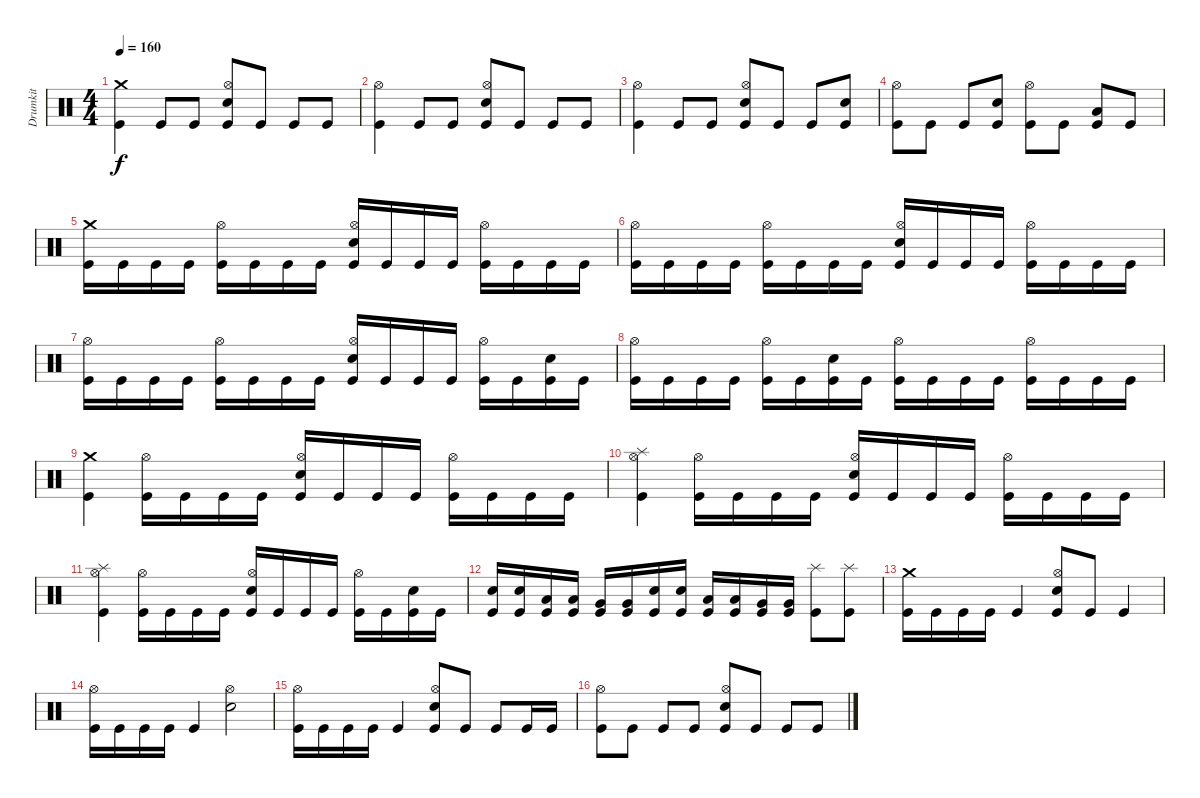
\track ("Drumkit" "Drumkit") {instrument percussion}
\staff {score}
\articulation defaults
\ts (4 4)
\tempo 160
\clef neutral
\ks c
("Crash medium (hit)" "Kick (hit)").4{dy f} "Kick (hit)".8 "Kick (hit)".8 ("Hi-Hat (open)" "Snare (hit) 2" "Kick (hit)").8 "Kick (hit)".8 "Kick (hit)".8 "Kick (hit)".8 |
("Hi-Hat (open)" "Kick (hit)").4 "Kick (hit)".8 "Kick (hit)".8 ("Hi-Hat (open)" "Snare (hit) 2" "Kick (hit)").8 "Kick (hit)".8 "Kick (hit)".8 "Kick (hit)".8 |
("Hi-Hat (open)" "Kick (hit)").4 "Kick (hit)".8 "Kick (hit)".8 ("Hi-Hat (open)" "Snare (hit) 2" "Kick (hit)").8 "Kick (hit)".8 "Kick (hit)".8 ("Snare (hit) 2" "Kick (hit)").8 |
("Hi-Hat (open)" "Kick (hit)").8 "Kick (hit)".8 "Kick (hit)".8 ("Snare (hit) 2" "Kick (hit)").8 ("Hi-Hat (open)" "Kick (hit)").8 "Kick (hit)".8 ("Low Tom (hit)" "Kick (hit)").8 "Kick (hit)".8 |
("Crash medium (hit)" "Kick (hit)").16 "Kick (hit)".16 "Kick (hit)".16 "Kick (hit)".16 ("Hi-Hat (open)" "Kick (hit)").16 "Kick (hit)".16 "Kick (hit)".16 "Kick (hit)".16 ("Hi-Hat (open)" "Snare (hit) 2" "Kick (hit)").16 "Kick (hit)".16 "Kick (hit)".16 "Kick (hit)".16 ("Hi-Hat (open)" "Kick (hit)").16 "Kick (hit)".16 "Kick (hit)".16 "Kick (hit)".16 |
("Hi-Hat (open)" "Kick (hit)").16 "Kick (hit)".16 "Kick (hit)".16 "Kick (hit)".16 ("Hi-Hat (open)" "Kick (hit)").16 "Kick (hit)".16 "Kick (hit)".16 "Kick (hit)".16 ("Hi-Hat (open)" "Snare (hit) 2" "Kick (hit)").16 "Kick (hit)".16 "Kick (hit)".16 "Kick (hit)".16 ("Hi-Hat (open)" "Kick (hit)").16 "Kick (hit)".16 "Kick (hit)".16 "Kick (hit)".16 |
("Hi-Hat (open)" "Kick (hit)").16 "Kick (hit)".16 "Kick (hit)".16 "Kick (hit)".16 ("Hi-Hat (open)" "Kick (hit)").16 "Kick (hit)".16 "Kick (hit)".16 "Kick (hit)".16 ("Hi-Hat (open)" "Snare (hit) 2" "Kick (hit)").16 "Kick (hit)".16 "Kick (hit)".16 "Kick (hit)".16 ("Hi-Hat (open)" "Kick (hit)").16 "Kick (hit)".16 ("Snare (hit) 2" "Kick (hit)").16 "Kick (hit)".16 |
("Hi-Hat (open)" "Kick (hit)").16 "Kick (hit)".16 "Kick (hit)".16 "Kick (hit)".16 ("Hi-Hat (open)" "Kick (hit)").16 "Kick (hit)".16 ("Snare (hit) 2" "Kick (hit)").16 "Kick (hit)".16 ("Hi-Hat (open)" "Kick (hit)").16 "Kick (hit)".16 "Kick (hit)".16 "Kick (hit)".16 ("Hi-Hat (open)" "Kick (hit)").16 "Kick (hit)".16 "Kick (hit)".16 "Kick (hit)".16 |
("Crash medium (hit)" "Kick (hit)").4 ("Hi-Hat (open)" "Kick (hit)").16 "Kick (hit)".16 "Kick (hit)".16 "Kick (hit)".16 ("Hi-Hat (open)" "Snare (hit) 2" "Kick (hit)").16 "Kick (hit)".16 "Kick (hit)".16 "Kick (hit)".16 ("Hi-Hat (open)" "Kick (hit)").16 "Kick (hit)".16 "Kick (hit)".16 "Kick (hit)".16 |
("Splash (hit)" "Hi-Hat (open)" "Kick (hit)").4 ("Hi-Hat (open)" "Kick (hit)").16 "Kick (hit)".16 "Kick (hit)".16 "Kick (hit)".16 ("Hi-Hat (open)" "Snare (hit) 2" "Kick (hit)").16 "Kick (hit)".16 "Kick (hit)".16 "Kick (hit)".16 ("Hi-Hat (open)" "Kick (hit)").16 "Kick (hit)".16 "Kick (hit)".16 "Kick (hit)".16 |
("Splash (hit)" "Hi-Hat (open)" "Kick (hit)").4 ("Hi-Hat (open)" "Kick (hit)").16 "Kick (hit)".16 "Kick (hit)".16 "Kick (hit)".16 ("Hi-Hat (open)" "Snare (hit) 2" "Kick (hit)").16 "Kick (hit)".16 "Kick (hit)".16 "Kick (hit)".16 ("Hi-Hat (open)" "Kick (hit)").16 "Kick (hit)".16 ("Snare (hit) 2" "Kick (hit)").16 "Kick (hit)".16 |
("Snare (hit) 2" "Kick (hit)").16 ("Snare (hit) 2" "Kick (hit)").16 ("Low Tom (hit)" "Kick (hit)").16 ("Low Tom (hit)" "Kick (hit)").16 ("Very Low Tom (hit)" "Kick (hit)").16 ("Very Low Tom (hit)" "Kick (hit)").16 ("Snare (hit) 2" "Kick (hit)").16 ("Snare (hit) 2" "Kick (hit)").16 ("Low Tom (hit)" "Kick (hit)").16 ("Low Tom (hit)" "Kick (hit)").16 ("Very Low Tom (hit)" "Kick (hit)").16 ("Very Low Tom (hit)" "Kick (hit)").16 ("Splash (hit)" "Kick (hit)").8 ("Splash (hit)" "Kick (hit)").8 |
("Crash medium (hit)" "Kick (hit)").16 "Kick (hit)".16 "Kick (hit)".16 "Kick (hit)".16 "Kick (hit)".4 ("Hi-Hat (open)" "Snare (hit) 2" "Kick (hit)").8 "Kick (hit)".8 "Kick (hit)".4 |
("Hi-Hat (open)" "Kick (hit)").16 "Kick (hit)".16 "Kick (hit)".16 "Kick (hit)".16 "Kick (hit)".4 ("Hi-Hat (open)" "Snare (hit) 2").2 |
("Hi-Hat (open)" "Kick (hit)").16 "Kick (hit)".16 "Kick (hit)".16 "Kick (hit)".16 "Kick (hit)".4 ("Hi-Hat (open)" "Snare (hit) 2" "Kick (hit)").8 "Kick (hit)".8 "Kick (hit)".8 "Kick (hit)".16 "Kick (hit)".16 |
("Hi-Hat (open)" "Kick (hit)").8 "Kick (hit)".8 "Kick (hit)".8 "Kick (hit)".8 ("Hi-Hat (open)" "Snare (hit) 2" "Kick (hit)").8 "Kick (hit)".8 "Kick (hit)".8 "Kick (hit)".8
